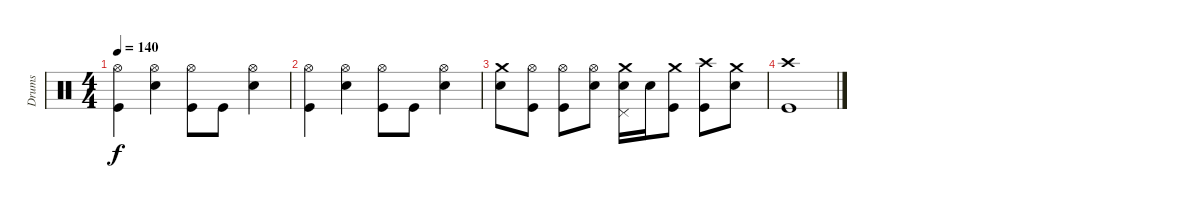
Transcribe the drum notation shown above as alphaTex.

\track ("Drums" "Drums") {instrument percussion}
\staff {score}
\articulation defaults
\ts (4 4)
\tempo 140
\clef neutral
\ks c
("Hi-Hat (open)" "Kick (hit)").4{dy f} ("Hi-Hat (open)" "Electric Snare (hit)").4 ("Hi-Hat (open)" "Kick (hit)").8 "Kick (hit)".8 ("Hi-Hat (open)" "Electric Snare (hit)").4 |
("Hi-Hat (open)" "Kick (hit)").4 ("Hi-Hat (open)" "Electric Snare (hit)").4 ("Hi-Hat (open)" "Kick (hit)").8 "Kick (hit)".8 ("Hi-Hat (open)" "Electric Snare (hit)").4 |
("Crash medium (hit)" "Electric Snare (hit)").8 ("Hi-Hat (open)" "Kick (hit)").8 ("Hi-Hat (open)" "Kick (hit)").8 ("Hi-Hat (open)" "Electric Snare (hit)").8 ("Crash medium (hit)" "Pedal Hi-Hat (hit)" "Electric Snare (hit)").16 "Electric Snare (hit)".16 ("Crash medium (hit)" "Kick (hit)").8 ("Crash high (hit)" "Kick (hit)").8 ("Crash medium (hit)" "Electric Snare (hit)").8 |
("Crash high (hit)" "Kick (hit)").1
